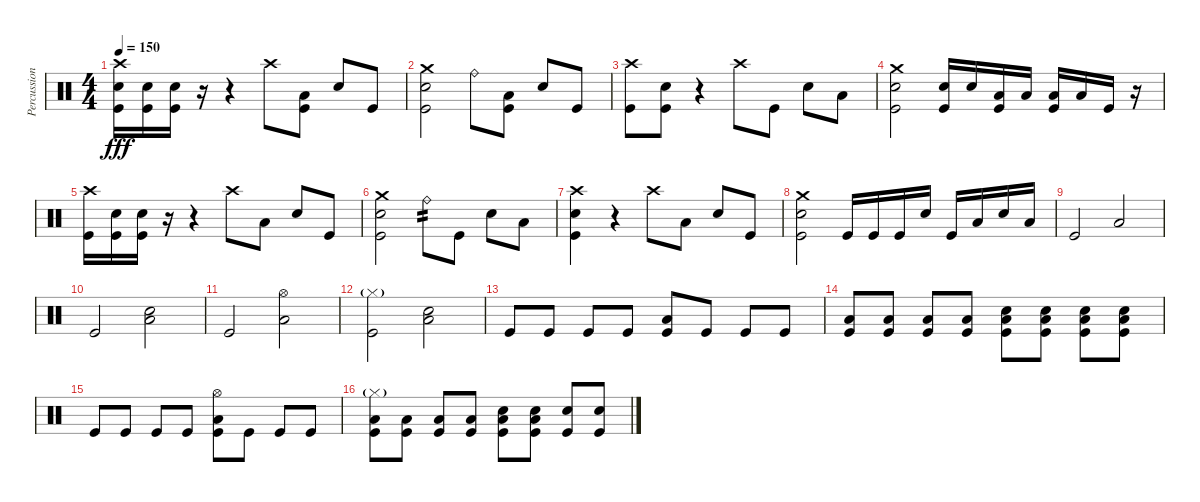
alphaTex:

\track ("Percussion" "Percussion") {instrument percussion}
\staff {score}
\articulation defaults
\ts (4 4)
\tempo 150
\clef neutral
\ks c
("Crash high (hit)" "Snare (hit) 2" "Kick (hit)").16{dy fff} ("Snare (hit) 2" "Kick (hit)").16 ("Snare (hit) 2" "Kick (hit)").16 r.16 r.4 "Crash high (hit)".8 ("Low Floor Tom (hit)" "Kick (hit)").8 "Snare (hit) 2".8 "Kick (hit)".8 |
("Crash medium (hit)" "Snare (hit) 2" "Kick (hit)").2 "Ride (bell)".8 ("Low Floor Tom (hit)" "Kick (hit)").8 "Snare (hit) 2".8 "Kick (hit)".8 |
("Crash high (hit)" "Kick (hit)").8 ("Snare (hit) 2" "Kick (hit)").8 r.4 "Crash high (hit)".8 "Kick (hit)".8 "Snare (hit) 2".8 "Low Floor Tom (hit)".8 |
("Crash medium (hit)" "Snare (hit) 2" "Kick (hit)").2 ("Snare (hit) 2" "Kick (hit)").16 "Snare (hit) 2".16 ("Low Floor Tom (hit)" "Kick (hit)").16 "Low Floor Tom (hit)".16 ("Low Tom (hit)" "Kick (hit)").16 "Low Tom (hit)".16 "Kick (hit)".16 r.16 |
("Crash high (hit)" "Kick (hit)").16 ("Snare (hit) 2" "Kick (hit)").16 ("Snare (hit) 2" "Kick (hit)").16 r.16 r.4 "Crash high (hit)".8 "Low Floor Tom (hit)".8 "Snare (hit) 2".8 "Kick (hit)".8 |
("Crash medium (hit)" "Snare (hit) 2" "Kick (hit)").2 "Ride (bell)".8{tp 2} "Kick (hit)".8 "Snare (hit) 2".8 "Low Floor Tom (hit)".8 |
("Crash high (hit)" "Snare (hit) 2" "Kick (hit)").4 r.4 "Crash high (hit)".8 "Low Floor Tom (hit)".8 "Snare (hit) 2".8 "Kick (hit)".8 |
("Crash medium (hit)" "Snare (hit) 2" "Kick (hit)").2 "Kick (hit)".16 "Kick (hit)".16 "Kick (hit)".16 "Snare (hit) 2".16 "Kick (hit)".16 "Low Tom (hit)".16 "Snare (hit) 2".16 "Low Tom (hit)".16 |
"Kick (hit)".2 "Low Floor Tom (hit)".2 |
"Kick (hit)".2 ("Snare (hit) 2" "Low Tom (hit)").2 |
"Kick (hit)".2 ("Hi-Hat (open)" "Low Floor Tom (hit)").2 |
("Hi-Hat (closed)"{g} "Kick (hit)").2 ("Snare (hit) 2" "Low Tom (hit)").2 |
"Kick (hit)".8 "Kick (hit)".8 "Kick (hit)".8 "Kick (hit)".8 ("Low Floor Tom (hit)" "Kick (hit)").8 "Kick (hit)".8 "Kick (hit)".8 "Kick (hit)".8 |
("Low Floor Tom (hit)" "Kick (hit)").8 ("Low Floor Tom (hit)" "Kick (hit)").8 ("Low Floor Tom (hit)" "Kick (hit)").8 ("Low Floor Tom (hit)" "Kick (hit)").8 ("Snare (hit) 2" "Low Tom (hit)" "Kick (hit)").8 ("Snare (hit) 2" "Low Tom (hit)" "Kick (hit)").8 ("Snare (hit) 2" "Low Tom (hit)" "Kick (hit)").8 ("Snare (hit) 2" "Low Tom (hit)" "Kick (hit)").8 |
"Kick (hit)".8 "Kick (hit)".8 "Kick (hit)".8 "Kick (hit)".8 ("Hi-Hat (open)" "Low Floor Tom (hit)" "Kick (hit)").8 "Kick (hit)".8 "Kick (hit)".8 "Kick (hit)".8 |
("Hi-Hat (closed)"{g} "Low Floor Tom (hit)" "Kick (hit)").8 ("Low Floor Tom (hit)" "Kick (hit)").8 ("Low Floor Tom (hit)" "Kick (hit)").8 ("Low Floor Tom (hit)" "Kick (hit)").8 ("Snare (hit) 2" "Low Tom (hit)" "Kick (hit)").8 ("Snare (hit) 2" "Low Tom (hit)" "Kick (hit)").8 ("Snare (hit) 2" "Kick (hit)").8 ("Snare (hit) 2" "Kick (hit)").8
